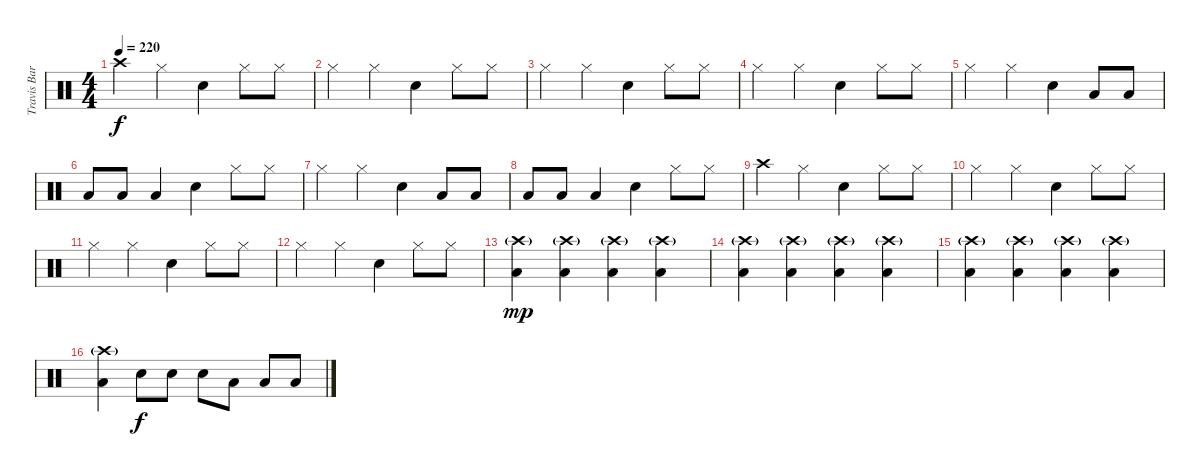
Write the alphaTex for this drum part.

\track ("Travis Barker" "Travis Bar") {instrument percussion}
\staff {score}
\articulation defaults
\ts (4 4)
\tempo 220
\clef neutral
\ks c "Crash high (hit)".4{dy f} "Hi-Hat (closed)".4 "Snare (hit) 2".4 "Hi-Hat (closed)".8 "Hi-Hat (closed)".8
|
"Hi-Hat (closed)".4 "Hi-Hat (closed)".4 "Snare (hit) 2".4 "Hi-Hat (closed)".8 "Hi-Hat (closed)".8 |
"Hi-Hat (closed)".4 "Hi-Hat (closed)".4 "Snare (hit) 2".4 "Hi-Hat (closed)".8 "Hi-Hat (closed)".8 |
"Hi-Hat (closed)".4 "Hi-Hat (closed)".4 "Snare (hit) 2".4 "Hi-Hat (closed)".8 "Hi-Hat (closed)".8 |
"Hi-Hat (closed)".4 "Hi-Hat (closed)".4 "Snare (hit) 2".4 "Low Floor Tom (hit)".8 "Low Floor Tom (hit)".8 |
"Low Floor Tom (hit)".8 "Low Floor Tom (hit)".8 "Low Floor Tom (hit)".4 "Snare (hit) 2".4 "Hi-Hat (closed)".8 "Hi-Hat (closed)".8 |
"Hi-Hat (closed)".4 "Hi-Hat (closed)".4 "Snare (hit) 2".4 "Low Floor Tom (hit)".8 "Low Floor Tom (hit)".8 |
"Low Floor Tom (hit)".8 "Low Floor Tom (hit)".8 "Low Floor Tom (hit)".4 "Snare (hit) 2".4 "Hi-Hat (closed)".8 "Hi-Hat (closed)".8 |
"Crash high (hit)".4 "Hi-Hat (closed)".4 "Snare (hit) 2".4 "Hi-Hat (closed)".8 "Hi-Hat (closed)".8 |
"Hi-Hat (closed)".4 "Hi-Hat (closed)".4 "Snare (hit) 2".4 "Hi-Hat (closed)".8 "Hi-Hat (closed)".8 |
"Hi-Hat (closed)".4 "Hi-Hat (closed)".4 "Snare (hit) 2".4 "Hi-Hat (closed)".8 "Hi-Hat (closed)".8 |
"Hi-Hat (closed)".4 "Hi-Hat (closed)".4 "Snare (hit) 2".4 "Hi-Hat (closed)".8 "Hi-Hat (closed)".8 |
("Crash high (hit)"{g} "Low Floor Tom (hit)").4{dy mp} ("Crash high (hit)"{g} "Low Floor Tom (hit)").4 ("Crash high (hit)"{g} "Low Floor Tom (hit)").4 ("Crash high (hit)"{g} "Low Floor Tom (hit)").4 |
("Crash high (hit)"{g} "Low Floor Tom (hit)").4 ("Crash high (hit)"{g} "Low Floor Tom (hit)").4 ("Crash high (hit)"{g} "Low Floor Tom (hit)").4 ("Crash high (hit)"{g} "Low Floor Tom (hit)").4 |
("Crash high (hit)"{g} "Low Floor Tom (hit)").4 ("Crash high (hit)"{g} "Low Floor Tom (hit)").4 ("Crash high (hit)"{g} "Low Floor Tom (hit)").4 ("Crash high (hit)"{g} "Low Floor Tom (hit)").4 |
("Crash high (hit)"{g} "Low Floor Tom (hit)").4 "Snare (hit) 2".8{dy f} "Snare (hit) 2".8 "Snare (hit) 2".8 "Low Floor Tom (hit)".8 "Low Floor Tom (hit)".8 "Low Floor Tom (hit)".8
